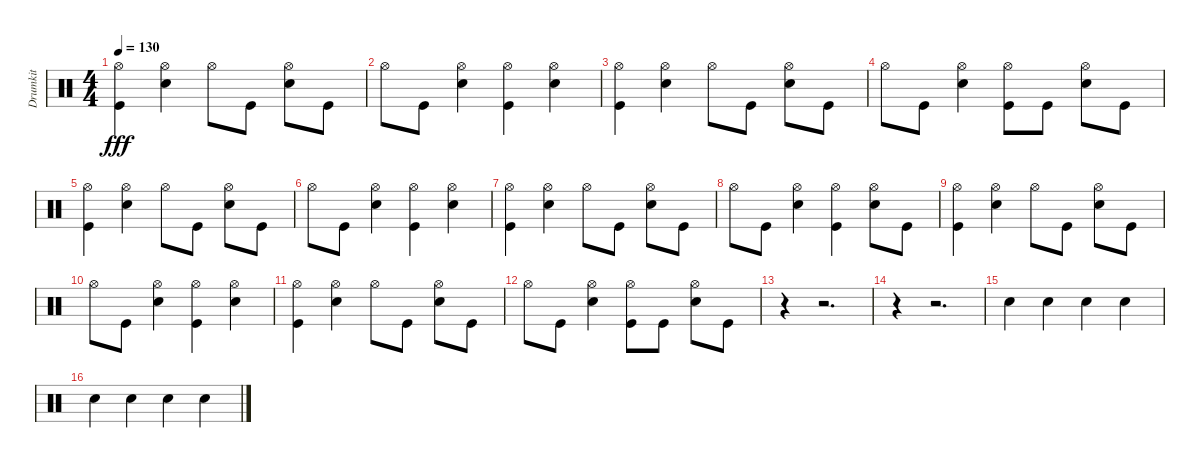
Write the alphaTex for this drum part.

\track ("Drumkit" "Drumkit") {instrument percussion}
\staff {score}
\articulation defaults
\ts (4 4)
\tempo 130
\clef neutral
\ks c
("Kick (hit)" "Hi-Hat (open)").4{dy fff} ("Snare (hit) 2" "Hi-Hat (open)").4 "Hi-Hat (open)".8 "Kick (hit)".8 ("Hi-Hat (open)" "Snare (hit) 2").8 "Kick (hit)".8 |
"Hi-Hat (open)".8 "Kick (hit)".8 ("Snare (hit) 2" "Hi-Hat (open)").4 ("Hi-Hat (open)" "Kick (hit)").4 ("Hi-Hat (open)" "Snare (hit) 2").4 |
("Kick (hit)" "Hi-Hat (open)").4 ("Snare (hit) 2" "Hi-Hat (open)").4 "Hi-Hat (open)".8 "Kick (hit)".8 ("Hi-Hat (open)" "Snare (hit) 2").8 "Kick (hit)".8 |
"Hi-Hat (open)".8 "Kick (hit)".8 ("Snare (hit) 2" "Hi-Hat (open)").4 ("Hi-Hat (open)" "Kick (hit)").8 "Kick (hit)".8 ("Hi-Hat (open)" "Snare (hit) 2").8 "Kick (hit)".8 |
("Kick (hit)" "Hi-Hat (open)").4 ("Snare (hit) 2" "Hi-Hat (open)").4 "Hi-Hat (open)".8 "Kick (hit)".8 ("Hi-Hat (open)" "Snare (hit) 2").8 "Kick (hit)".8 |
"Hi-Hat (open)".8 "Kick (hit)".8 ("Snare (hit) 2" "Hi-Hat (open)").4 ("Hi-Hat (open)" "Kick (hit)").4 ("Hi-Hat (open)" "Snare (hit) 2").4 |
("Kick (hit)" "Hi-Hat (open)").4 ("Snare (hit) 2" "Hi-Hat (open)").4 "Hi-Hat (open)".8 "Kick (hit)".8 ("Hi-Hat (open)" "Snare (hit) 2").8 "Kick (hit)".8 |
"Hi-Hat (open)".8 "Kick (hit)".8 ("Snare (hit) 2" "Hi-Hat (open)").4 ("Hi-Hat (open)" "Kick (hit)").4 ("Hi-Hat (open)" "Snare (hit) 2").8 "Kick (hit)".8 |
("Kick (hit)" "Hi-Hat (open)").4 ("Snare (hit) 2" "Hi-Hat (open)").4 "Hi-Hat (open)".8 "Kick (hit)".8 ("Hi-Hat (open)" "Snare (hit) 2").8 "Kick (hit)".8 |
"Hi-Hat (open)".8 "Kick (hit)".8 ("Snare (hit) 2" "Hi-Hat (open)").4 ("Hi-Hat (open)" "Kick (hit)").4 ("Hi-Hat (open)" "Snare (hit) 2").4 |
("Kick (hit)" "Hi-Hat (open)").4 ("Snare (hit) 2" "Hi-Hat (open)").4 "Hi-Hat (open)".8 "Kick (hit)".8 ("Hi-Hat (open)" "Snare (hit) 2").8 "Kick (hit)".8 |
"Hi-Hat (open)".8 "Kick (hit)".8 ("Snare (hit) 2" "Hi-Hat (open)").4 ("Hi-Hat (open)" "Kick (hit)").8 "Kick (hit)".8 ("Hi-Hat (open)" "Snare (hit) 2").8 "Kick (hit)".8 |
r.4 r.2{d} |
r.4 r.2{d} |
"Snare (hit) 2".4 "Snare (hit) 2".4 "Snare (hit) 2".4 "Snare (hit) 2".4 |
"Snare (hit) 2".4 "Snare (hit) 2".4 "Snare (hit) 2".4 "Snare (hit) 2".4
